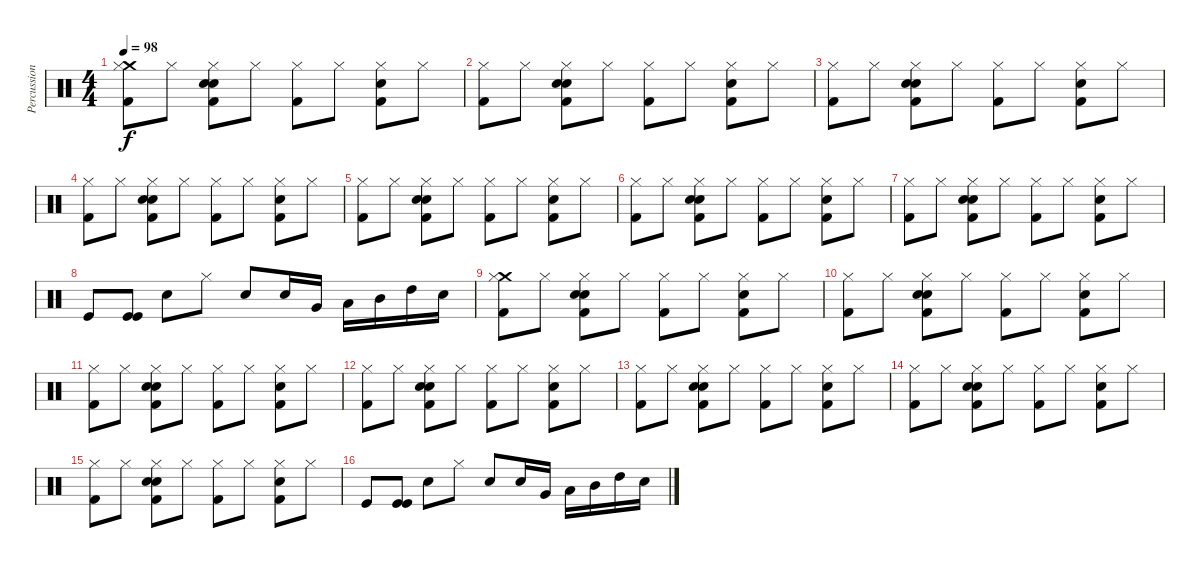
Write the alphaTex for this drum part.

\track ("Percussion" "Percussion") {instrument percussion}
\staff {score}
\articulation defaults
\ts (4 4)
\tempo 98
\clef neutral
\ks c
("Kick (hit) 2" "Crash medium (hit)" "Hi-Hat (closed)").8{dy f} "Hi-Hat (closed)".8 ("Hi-Hat (closed)" "Snare (hit)" "Snare (hit) 2" "Kick (hit) 2").8 "Hi-Hat (closed)".8 ("Hi-Hat (closed)" "Kick (hit) 2").8 "Hi-Hat (closed)".8 ("Hi-Hat (closed)" "Snare (hit) 2" "Kick (hit) 2").8 "Hi-Hat (closed)".8 |
("Kick (hit) 2" "Hi-Hat (closed)").8 "Hi-Hat (closed)".8 ("Hi-Hat (closed)" "Snare (hit)" "Snare (hit) 2" "Kick (hit) 2").8 "Hi-Hat (closed)".8 ("Hi-Hat (closed)" "Kick (hit) 2").8 "Hi-Hat (closed)".8 ("Hi-Hat (closed)" "Snare (hit) 2" "Kick (hit) 2").8 "Hi-Hat (closed)".8 |
("Kick (hit) 2" "Hi-Hat (closed)").8 "Hi-Hat (closed)".8 ("Hi-Hat (closed)" "Snare (hit)" "Snare (hit) 2" "Kick (hit) 2").8 "Hi-Hat (closed)".8 ("Hi-Hat (closed)" "Kick (hit) 2").8 "Hi-Hat (closed)".8 ("Hi-Hat (closed)" "Snare (hit) 2" "Kick (hit) 2").8 "Hi-Hat (closed)".8 |
("Kick (hit) 2" "Hi-Hat (closed)").8 "Hi-Hat (closed)".8 ("Hi-Hat (closed)" "Snare (hit)" "Snare (hit) 2" "Kick (hit) 2").8 "Hi-Hat (closed)".8 ("Hi-Hat (closed)" "Kick (hit) 2").8 "Hi-Hat (closed)".8 ("Hi-Hat (closed)" "Snare (hit) 2" "Kick (hit) 2").8 "Hi-Hat (closed)".8 |
("Kick (hit) 2" "Hi-Hat (closed)").8 "Hi-Hat (closed)".8 ("Hi-Hat (closed)" "Snare (hit)" "Snare (hit) 2" "Kick (hit) 2").8 "Hi-Hat (closed)".8 ("Hi-Hat (closed)" "Kick (hit) 2").8 "Hi-Hat (closed)".8 ("Hi-Hat (closed)" "Snare (hit) 2" "Kick (hit) 2").8 "Hi-Hat (closed)".8 |
("Kick (hit) 2" "Hi-Hat (closed)").8 "Hi-Hat (closed)".8 ("Hi-Hat (closed)" "Snare (hit)" "Snare (hit) 2" "Kick (hit) 2").8 "Hi-Hat (closed)".8 ("Hi-Hat (closed)" "Kick (hit) 2").8 "Hi-Hat (closed)".8 ("Hi-Hat (closed)" "Snare (hit) 2" "Kick (hit) 2").8 "Hi-Hat (closed)".8 |
("Kick (hit) 2" "Hi-Hat (closed)").8 "Hi-Hat (closed)".8 ("Hi-Hat (closed)" "Snare (hit)" "Snare (hit) 2" "Kick (hit) 2").8 "Hi-Hat (closed)".8 ("Hi-Hat (closed)" "Kick (hit) 2").8 "Hi-Hat (closed)".8 ("Hi-Hat (closed)" "Snare (hit) 2" "Kick (hit) 2").8 "Hi-Hat (closed)".8 |
"Kick (hit)".8 ("Kick (hit)" "Kick (hit)").8 "Snare (hit) 2".8 "Hi-Hat (closed)".8 "Snare (hit) 2".8 "Snare (hit) 2".16 "Very Low Tom (hit)".16 "Low Tom (hit)".16 "Mid Tom (hit)".16 "High Tom (hit)".16 "Electric Snare (hit)".16 |
("Kick (hit) 2" "Crash medium (hit)" "Hi-Hat (closed)").8 "Hi-Hat (closed)".8 ("Hi-Hat (closed)" "Snare (hit)" "Snare (hit) 2" "Kick (hit) 2").8 "Hi-Hat (closed)".8 ("Hi-Hat (closed)" "Kick (hit) 2").8 "Hi-Hat (closed)".8 ("Hi-Hat (closed)" "Snare (hit) 2" "Kick (hit) 2").8 "Hi-Hat (closed)".8 |
("Kick (hit) 2" "Hi-Hat (closed)").8 "Hi-Hat (closed)".8 ("Hi-Hat (closed)" "Snare (hit)" "Snare (hit) 2" "Kick (hit) 2").8 "Hi-Hat (closed)".8 ("Hi-Hat (closed)" "Kick (hit) 2").8 "Hi-Hat (closed)".8 ("Hi-Hat (closed)" "Snare (hit) 2" "Kick (hit) 2").8 "Hi-Hat (closed)".8 |
("Kick (hit) 2" "Hi-Hat (closed)").8 "Hi-Hat (closed)".8 ("Hi-Hat (closed)" "Snare (hit)" "Snare (hit) 2" "Kick (hit) 2").8 "Hi-Hat (closed)".8 ("Hi-Hat (closed)" "Kick (hit) 2").8 "Hi-Hat (closed)".8 ("Hi-Hat (closed)" "Snare (hit) 2" "Kick (hit) 2").8 "Hi-Hat (closed)".8 |
("Kick (hit) 2" "Hi-Hat (closed)").8 "Hi-Hat (closed)".8 ("Hi-Hat (closed)" "Snare (hit)" "Snare (hit) 2" "Kick (hit) 2").8 "Hi-Hat (closed)".8 ("Hi-Hat (closed)" "Kick (hit) 2").8 "Hi-Hat (closed)".8 ("Hi-Hat (closed)" "Snare (hit) 2" "Kick (hit) 2").8 "Hi-Hat (closed)".8 |
("Kick (hit) 2" "Hi-Hat (closed)").8 "Hi-Hat (closed)".8 ("Hi-Hat (closed)" "Snare (hit)" "Snare (hit) 2" "Kick (hit) 2").8 "Hi-Hat (closed)".8 ("Hi-Hat (closed)" "Kick (hit) 2").8 "Hi-Hat (closed)".8 ("Hi-Hat (closed)" "Snare (hit) 2" "Kick (hit) 2").8 "Hi-Hat (closed)".8 |
("Kick (hit) 2" "Hi-Hat (closed)").8 "Hi-Hat (closed)".8 ("Hi-Hat (closed)" "Snare (hit)" "Snare (hit) 2" "Kick (hit) 2").8 "Hi-Hat (closed)".8 ("Hi-Hat (closed)" "Kick (hit) 2").8 "Hi-Hat (closed)".8 ("Hi-Hat (closed)" "Snare (hit) 2" "Kick (hit) 2").8 "Hi-Hat (closed)".8 |
("Kick (hit) 2" "Hi-Hat (closed)").8 "Hi-Hat (closed)".8 ("Hi-Hat (closed)" "Snare (hit)" "Snare (hit) 2" "Kick (hit) 2").8 "Hi-Hat (closed)".8 ("Hi-Hat (closed)" "Kick (hit) 2").8 "Hi-Hat (closed)".8 ("Hi-Hat (closed)" "Snare (hit) 2" "Kick (hit) 2").8 "Hi-Hat (closed)".8 |
"Kick (hit)".8 ("Kick (hit)" "Kick (hit)").8 "Snare (hit) 2".8 "Hi-Hat (closed)".8 "Snare (hit) 2".8 "Snare (hit) 2".16 "Very Low Tom (hit)".16 "Low Tom (hit)".16 "Mid Tom (hit)".16 "High Tom (hit)".16 "Electric Snare (hit)".16
